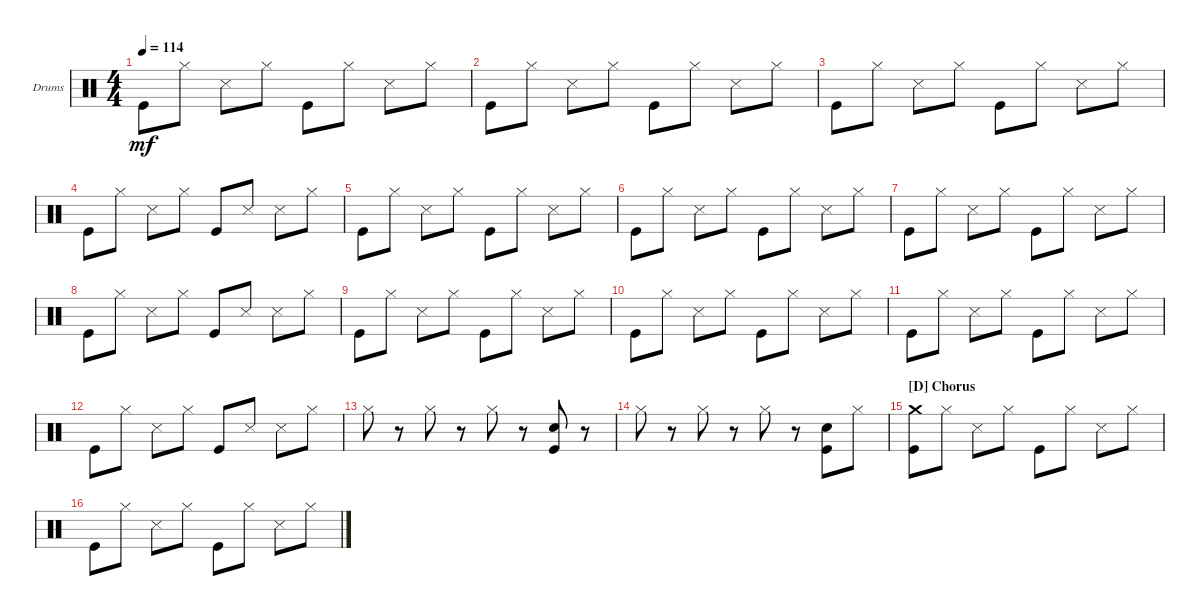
\defaultSystemsLayout 4
\bracketExtendMode groupsimilarinstruments
\firstSystemTrackNameOrientation horizontal
\otherSystemsTrackNameOrientation horizontal
\track ("Drumkit" "Drums") {instrument percussion}
\staff {score}
\articulation defaults
\ts (4 4)
\tempo 114
\clef neutral
\scale
0.333333
\ks c "Kick (hit)".8{dy mf} "Hi-Hat (closed)".8 "Snare (side stick) 3".8 "Hi-Hat (closed)".8 "Kick (hit)".8 "Hi-Hat (closed)".8 "Snare (side stick) 3".8 "Hi-Hat (closed)".8
|
\scale
0.333333 "Kick (hit)".8 "Hi-Hat (closed)".8 "Snare (side stick) 3".8 "Hi-Hat (closed)".8 "Kick (hit)".8 "Hi-Hat (closed)".8 "Snare (side stick) 3".8 "Hi-Hat (closed)".8 |
\scale
0.333333 "Kick (hit)".8 "Hi-Hat (closed)".8 "Snare (side stick) 3".8 "Hi-Hat (closed)".8 "Kick (hit)".8 "Hi-Hat (closed)".8 "Snare (side stick) 3".8 "Hi-Hat (closed)".8 |
\scale
0.333333 "Kick (hit)".8 "Hi-Hat (closed)".8 "Snare (side stick) 3".8 "Hi-Hat (closed)".8 "Kick (hit)".8 "Snare (side stick) 3".8 "Snare (side stick) 3".8 "Hi-Hat (closed)".8 |
\scale
0.333333 "Kick (hit)".8 "Hi-Hat (closed)".8 "Snare (side stick) 3".8 "Hi-Hat (closed)".8 "Kick (hit)".8 "Hi-Hat (closed)".8 "Snare (side stick) 3".8 "Hi-Hat (closed)".8 |
\scale
0.333333 "Kick (hit)".8 "Hi-Hat (closed)".8 "Snare (side stick) 3".8 "Hi-Hat (closed)".8 "Kick (hit)".8 "Hi-Hat (closed)".8 "Snare (side stick) 3".8 "Hi-Hat (closed)".8 |
\scale
0.333333 "Kick (hit)".8 "Hi-Hat (closed)".8 "Snare (side stick) 3".8 "Hi-Hat (closed)".8 "Kick (hit)".8 "Hi-Hat (closed)".8 "Snare (side stick) 3".8 "Hi-Hat (closed)".8 |
\scale
0.333333 "Kick (hit)".8 "Hi-Hat (closed)".8 "Snare (side stick) 3".8 "Hi-Hat (closed)".8 "Kick (hit)".8 "Snare (side stick) 3".8 "Snare (side stick) 3".8 "Hi-Hat (closed)".8 |
\scale
0.333333 "Kick (hit)".8 "Hi-Hat (closed)".8 "Snare (side stick) 3".8 "Hi-Hat (closed)".8 "Kick (hit)".8 "Hi-Hat (closed)".8 "Snare (side stick) 3".8 "Hi-Hat (closed)".8 |
"Kick (hit)".8 "Hi-Hat (closed)".8 "Snare (side stick) 3".8 "Hi-Hat (closed)".8 "Kick (hit)".8 "Hi-Hat (closed)".8 "Snare (side stick) 3".8 "Hi-Hat (closed)".8 |
\scale
0.333333 "Kick (hit)".8 "Hi-Hat (closed)".8 "Snare (side stick) 3".8 "Hi-Hat (closed)".8 "Kick (hit)".8 "Hi-Hat (closed)".8 "Snare (side stick) 3".8 "Hi-Hat (closed)".8 |
\scale
0.333333 "Kick (hit)".8 "Hi-Hat (closed)".8 "Snare (side stick) 3".8 "Hi-Hat (closed)".8 "Kick (hit)".8 "Snare (side stick) 3".8 "Snare (side stick) 3".8 "Hi-Hat (closed)".8 |
\scale
0.333333 "Hi-Hat (closed)".8 r.8 "Hi-Hat (closed)".8 r.8 "Hi-Hat (closed)".8 r.8 ("Snare (hit) 2" "Kick (hit)").8 r.8 |
\scale
0.333333 "Hi-Hat (closed)".8 r.8 "Hi-Hat (closed)".8 r.8 "Hi-Hat (closed)".8 r.8 ("Snare (hit) 2" "Kick (hit)").8 "Hi-Hat (closed)".8 |
\section ("D" "Chorus")
\scale
0.333333 ("Kick (hit)" "Crash medium (hit)").8 "Hi-Hat (closed)".8 "Snare (side stick) 3".8 "Hi-Hat (closed)".8 "Kick (hit)".8 "Hi-Hat (closed)".8 "Snare (side stick) 3".8 "Hi-Hat (closed)".8 |
\scale
0.333333 "Kick (hit)".8 "Hi-Hat (closed)".8 "Snare (side stick) 3".8 "Hi-Hat (closed)".8 "Kick (hit)".8 "Hi-Hat (closed)".8 "Snare (side stick) 3".8 "Hi-Hat (closed)".8
